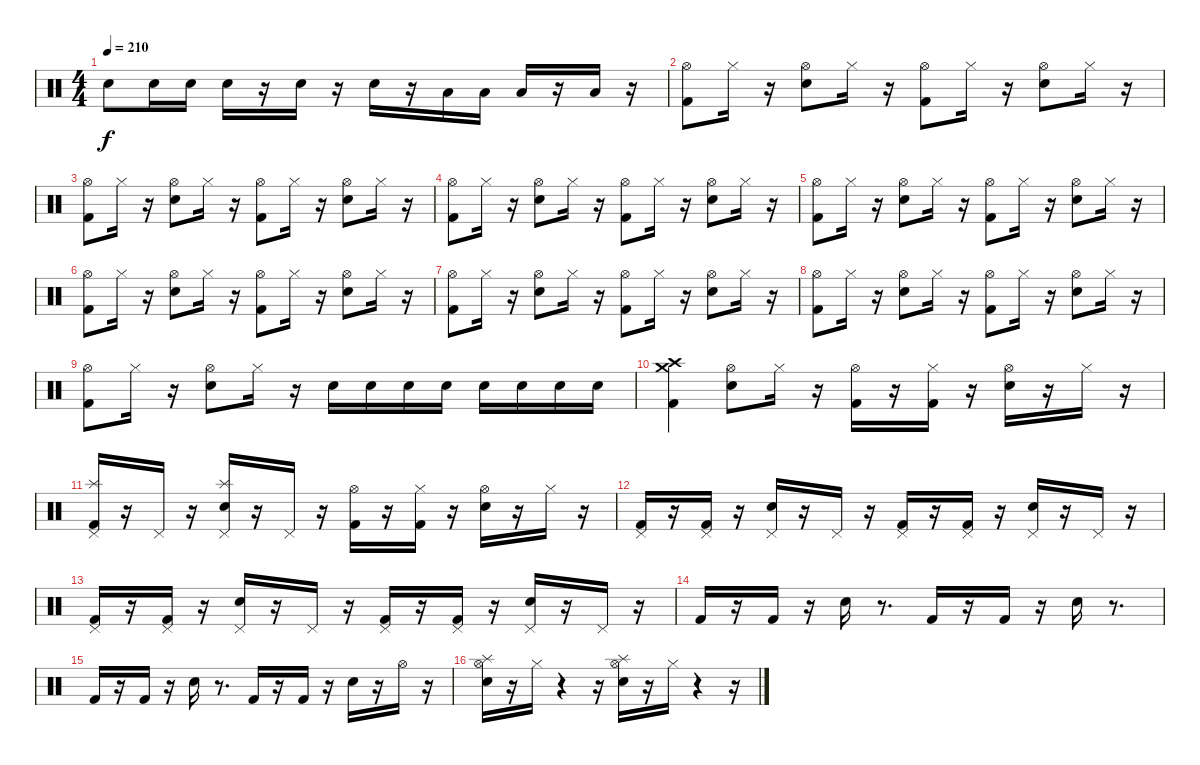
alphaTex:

\track "" {instrument percussion}
\staff {score}
\articulation defaults
\ts (4 4)
\tempo 210
\clef neutral
\ks c "Electric Snare (hit)".8{dy f} "Electric Snare (hit)".16 "Electric Snare (hit)".16 "Electric Snare (hit)".16
r.16 "Electric Snare (hit)".16 r.16 "Snare (hit) 2".16 r.16 "Low Tom (hit)".16 "Low Tom (hit)".16 "Low Tom (hit)".16 r.16 "Low Tom (hit)".16 r.16 |
("Hi-Hat (open)" "Kick (hit) 2").8 "Hi-Hat (closed)".16 r.16 ("Hi-Hat (open)" "Snare (hit) 2").8 "Hi-Hat (closed)".16 r.16 ("Hi-Hat (open)" "Kick (hit) 2").8 "Hi-Hat (closed)".16 r.16 ("Hi-Hat (open)" "Snare (hit) 2").8 "Hi-Hat (closed)".16 r.16 |
("Hi-Hat (open)" "Kick (hit) 2").8 "Hi-Hat (closed)".16 r.16 ("Hi-Hat (open)" "Snare (hit) 2").8 "Hi-Hat (closed)".16 r.16 ("Hi-Hat (open)" "Kick (hit) 2").8 "Hi-Hat (closed)".16 r.16 ("Hi-Hat (open)" "Snare (hit) 2").8 "Hi-Hat (closed)".16 r.16 |
("Hi-Hat (open)" "Kick (hit) 2").8 "Hi-Hat (closed)".16 r.16 ("Hi-Hat (open)" "Snare (hit) 2").8 "Hi-Hat (closed)".16 r.16 ("Hi-Hat (open)" "Kick (hit) 2").8 "Hi-Hat (closed)".16 r.16 ("Hi-Hat (open)" "Snare (hit) 2").8 "Hi-Hat (closed)".16 r.16 |
("Hi-Hat (open)" "Kick (hit) 2").8 "Hi-Hat (closed)".16 r.16 ("Hi-Hat (open)" "Snare (hit) 2").8 "Hi-Hat (closed)".16 r.16 ("Hi-Hat (open)" "Kick (hit) 2").8 "Hi-Hat (closed)".16 r.16 ("Hi-Hat (open)" "Snare (hit) 2").8 "Hi-Hat (closed)".16 r.16 |
("Hi-Hat (open)" "Kick (hit) 2").8 "Hi-Hat (closed)".16 r.16 ("Hi-Hat (open)" "Snare (hit) 2").8 "Hi-Hat (closed)".16 r.16 ("Hi-Hat (open)" "Kick (hit) 2").8 "Hi-Hat (closed)".16 r.16 ("Hi-Hat (open)" "Snare (hit) 2").8 "Hi-Hat (closed)".16 r.16 |
("Hi-Hat (open)" "Kick (hit) 2").8 "Hi-Hat (closed)".16 r.16 ("Hi-Hat (open)" "Snare (hit) 2").8 "Hi-Hat (closed)".16 r.16 ("Hi-Hat (open)" "Kick (hit) 2").8 "Hi-Hat (closed)".16 r.16 ("Hi-Hat (open)" "Snare (hit) 2").8 "Hi-Hat (closed)".16 r.16 |
("Hi-Hat (open)" "Kick (hit) 2").8 "Hi-Hat (closed)".16 r.16 ("Hi-Hat (open)" "Snare (hit) 2").8 "Hi-Hat (closed)".16 r.16 ("Hi-Hat (open)" "Kick (hit) 2").8 "Hi-Hat (closed)".16 r.16 ("Hi-Hat (open)" "Snare (hit) 2").8 "Hi-Hat (closed)".16 r.16 |
("Hi-Hat (open)" "Kick (hit) 2").8 "Hi-Hat (closed)".16 r.16 ("Hi-Hat (open)" "Snare (hit) 2").8 "Hi-Hat (closed)".16 r.16 "Snare (hit) 2".16 "Snare (hit) 2".16 "Snare (hit) 2".16 "Snare (hit) 2".16 "Snare (hit) 2".16 "Snare (hit) 2".16 "Snare (hit) 2".16 "Snare (hit) 2".16 |
("Crash medium (hit)" "Crash high (hit)" "Kick (hit) 2").4 ("Hi-Hat (open)" "Snare (hit) 2").8 "Hi-Hat (closed)".16 r.16 ("Hi-Hat (open)" "Kick (hit) 2").16 r.16 ("Hi-Hat (closed)" "Kick (hit) 2").16 r.16 ("Hi-Hat (open)" "Snare (hit) 2").16 r.16 "Hi-Hat (closed)".16 r.16 |
("Splash (hit)" "Pedal Hi-Hat (hit)" "Kick (hit) 2").16 r.16 "Pedal Hi-Hat (hit)".16 r.16 ("Splash (hit)" "Pedal Hi-Hat (hit)" "Snare (hit) 2").16 r.16 "Pedal Hi-Hat (hit)".16 r.16 ("Hi-Hat (open)" "Kick (hit) 2").16 r.16 ("Hi-Hat (closed)" "Kick (hit) 2").16 r.16 ("Hi-Hat (open)" "Snare (hit) 2").16 r.16 "Hi-Hat (closed)".16 r.16 |
("Pedal Hi-Hat (hit)" "Kick (hit) 2").16 r.16 ("Pedal Hi-Hat (hit)" "Kick (hit) 2").16 r.16 ("Pedal Hi-Hat (hit)" "Snare (hit) 2").16 r.16 "Pedal Hi-Hat (hit)".16 r.16 ("Pedal Hi-Hat (hit)" "Kick (hit) 2").16 r.16 ("Pedal Hi-Hat (hit)" "Kick (hit) 2").16 r.16 ("Pedal Hi-Hat (hit)" "Snare (hit) 2").16 r.16 "Pedal Hi-Hat (hit)".16 r.16 |
("Pedal Hi-Hat (hit)" "Kick (hit) 2").16 r.16 ("Pedal Hi-Hat (hit)" "Kick (hit) 2").16 r.16 ("Pedal Hi-Hat (hit)" "Snare (hit) 2").16 r.16 "Pedal Hi-Hat (hit)".16 r.16 ("Pedal Hi-Hat (hit)" "Kick (hit) 2").16 r.16 ("Pedal Hi-Hat (hit)" "Kick (hit) 2").16 r.16 ("Pedal Hi-Hat (hit)" "Snare (hit) 2").16 r.16 "Pedal Hi-Hat (hit)".16 r.16 |
"Kick (hit) 2".16 r.16 "Kick (hit) 2".16 r.16 "Snare (hit) 2".16 r.8{d} "Kick (hit) 2".16 r.16 "Kick (hit) 2".16 r.16 "Snare (hit) 2".16 r.8{d} |
"Kick (hit) 2".16 r.16 "Kick (hit) 2".16 r.16 "Snare (hit) 2".16 r.8{d} "Kick (hit) 2".16 r.16 "Kick (hit) 2".16 r.16 "Snare (hit) 2".16 r.16 "Hi-Hat (open)".16 r.16 |
("Hi-Hat (open)" "Splash (hit)" "Electric Snare (hit)").16 r.16 "Hi-Hat (closed)".16 r.4 r.16 ("Hi-Hat (open)" "Splash (hit)" "Electric Snare (hit)").16 r.16 "Hi-Hat (closed)".16 r.4 r.16
